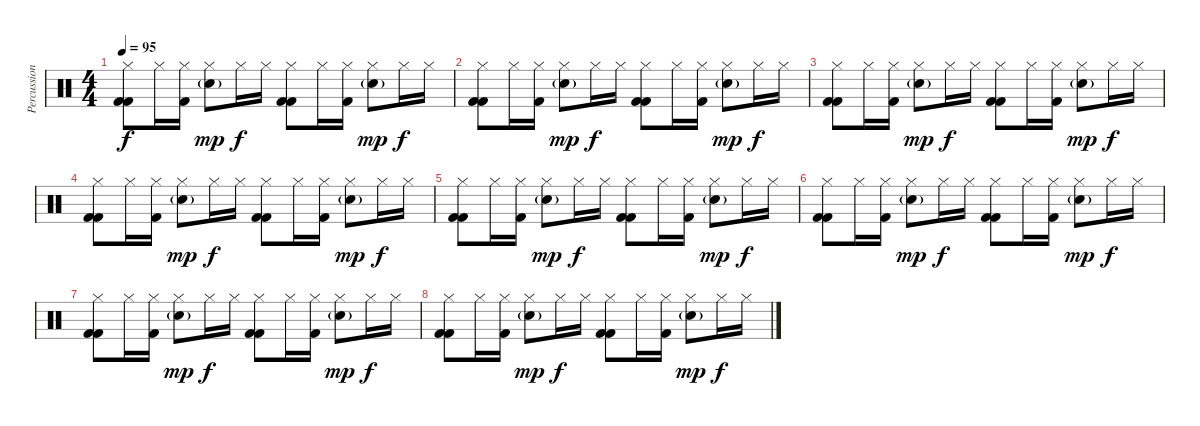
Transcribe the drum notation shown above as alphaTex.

\track ("Percussion" "Percussion") {instrument percussion}
\staff {score}
\articulation defaults
\ts (4 4)
\tempo 95
\clef neutral
\ks c
("Kick (hit) 2" "Kick (hit) 2" "Hi-Hat (closed)").8{dy f} "Hi-Hat (closed)".16 ("Kick (hit) 2" "Hi-Hat (closed)").16 ("Snare (hit) 2"{g} "Hi-Hat (closed)").8{dy mp} "Hi-Hat (closed)".16{dy f} "Hi-Hat (closed)".16 ("Kick (hit) 2" "Kick (hit) 2" "Hi-Hat (closed)").8 "Hi-Hat (closed)".16 ("Kick (hit) 2" "Hi-Hat (closed)").16 ("Snare (hit) 2"{g} "Hi-Hat (closed)").8{dy mp} "Hi-Hat (closed)".16{dy f} "Hi-Hat (closed)".16 |
("Kick (hit) 2" "Kick (hit) 2" "Hi-Hat (closed)").8 "Hi-Hat (closed)".16 ("Kick (hit) 2" "Hi-Hat (closed)").16 ("Snare (hit) 2"{g} "Hi-Hat (closed)").8{dy mp} "Hi-Hat (closed)".16{dy f} "Hi-Hat (closed)".16 ("Kick (hit) 2" "Kick (hit) 2" "Hi-Hat (closed)").8 "Hi-Hat (closed)".16 ("Kick (hit) 2" "Hi-Hat (closed)").16 ("Snare (hit) 2"{g} "Hi-Hat (closed)").8{dy mp} "Hi-Hat (closed)".16{dy f} "Hi-Hat (closed)".16 |
("Kick (hit) 2" "Kick (hit) 2" "Hi-Hat (closed)").8 "Hi-Hat (closed)".16 ("Kick (hit) 2" "Hi-Hat (closed)").16 ("Snare (hit) 2"{g} "Hi-Hat (closed)").8{dy mp} "Hi-Hat (closed)".16{dy f} "Hi-Hat (closed)".16 ("Kick (hit) 2" "Kick (hit) 2" "Hi-Hat (closed)").8 "Hi-Hat (closed)".16 ("Kick (hit) 2" "Hi-Hat (closed)").16 ("Snare (hit) 2"{g} "Hi-Hat (closed)").8{dy mp} "Hi-Hat (closed)".16{dy f} "Hi-Hat (closed)".16 |
("Kick (hit) 2" "Kick (hit) 2" "Hi-Hat (closed)").8 "Hi-Hat (closed)".16 ("Kick (hit) 2" "Hi-Hat (closed)").16 ("Snare (hit) 2"{g} "Hi-Hat (closed)").8{dy mp} "Hi-Hat (closed)".16{dy f} "Hi-Hat (closed)".16 ("Kick (hit) 2" "Kick (hit) 2" "Hi-Hat (closed)").8 "Hi-Hat (closed)".16 ("Kick (hit) 2" "Hi-Hat (closed)").16 ("Snare (hit) 2"{g} "Hi-Hat (closed)").8{dy mp} "Hi-Hat (closed)".16{dy f} "Hi-Hat (closed)".16 |
("Kick (hit) 2" "Kick (hit) 2" "Hi-Hat (closed)").8 "Hi-Hat (closed)".16 ("Kick (hit) 2" "Hi-Hat (closed)").16 ("Snare (hit) 2"{g} "Hi-Hat (closed)").8{dy mp} "Hi-Hat (closed)".16{dy f} "Hi-Hat (closed)".16 ("Kick (hit) 2" "Kick (hit) 2" "Hi-Hat (closed)").8 "Hi-Hat (closed)".16 ("Kick (hit) 2" "Hi-Hat (closed)").16 ("Snare (hit) 2"{g} "Hi-Hat (closed)").8{dy mp} "Hi-Hat (closed)".16{dy f} "Hi-Hat (closed)".16 |
("Kick (hit) 2" "Kick (hit) 2" "Hi-Hat (closed)").8 "Hi-Hat (closed)".16 ("Kick (hit) 2" "Hi-Hat (closed)").16 ("Snare (hit) 2"{g} "Hi-Hat (closed)").8{dy mp} "Hi-Hat (closed)".16{dy f} "Hi-Hat (closed)".16 ("Kick (hit) 2" "Kick (hit) 2" "Hi-Hat (closed)").8 "Hi-Hat (closed)".16 ("Kick (hit) 2" "Hi-Hat (closed)").16 ("Snare (hit) 2"{g} "Hi-Hat (closed)").8{dy mp} "Hi-Hat (closed)".16{dy f} "Hi-Hat (closed)".16 |
("Kick (hit) 2" "Kick (hit) 2" "Hi-Hat (closed)").8 "Hi-Hat (closed)".16 ("Kick (hit) 2" "Hi-Hat (closed)").16 ("Snare (hit) 2"{g} "Hi-Hat (closed)").8{dy mp} "Hi-Hat (closed)".16{dy f} "Hi-Hat (closed)".16 ("Kick (hit) 2" "Kick (hit) 2" "Hi-Hat (closed)").8 "Hi-Hat (closed)".16 ("Kick (hit) 2" "Hi-Hat (closed)").16 ("Snare (hit) 2"{g} "Hi-Hat (closed)").8{dy mp} "Hi-Hat (closed)".16{dy f} "Hi-Hat (closed)".16 |
("Kick (hit) 2" "Kick (hit) 2" "Hi-Hat (closed)").8 "Hi-Hat (closed)".16 ("Kick (hit) 2" "Hi-Hat (closed)").16 ("Snare (hit) 2"{g} "Hi-Hat (closed)").8{dy mp} "Hi-Hat (closed)".16{dy f} "Hi-Hat (closed)".16 ("Kick (hit) 2" "Kick (hit) 2" "Hi-Hat (closed)").8 "Hi-Hat (closed)".16 ("Kick (hit) 2" "Hi-Hat (closed)").16 ("Snare (hit) 2"{g} "Hi-Hat (closed)").8{dy mp} "Hi-Hat (closed)".16{dy f} "Hi-Hat (closed)".16
